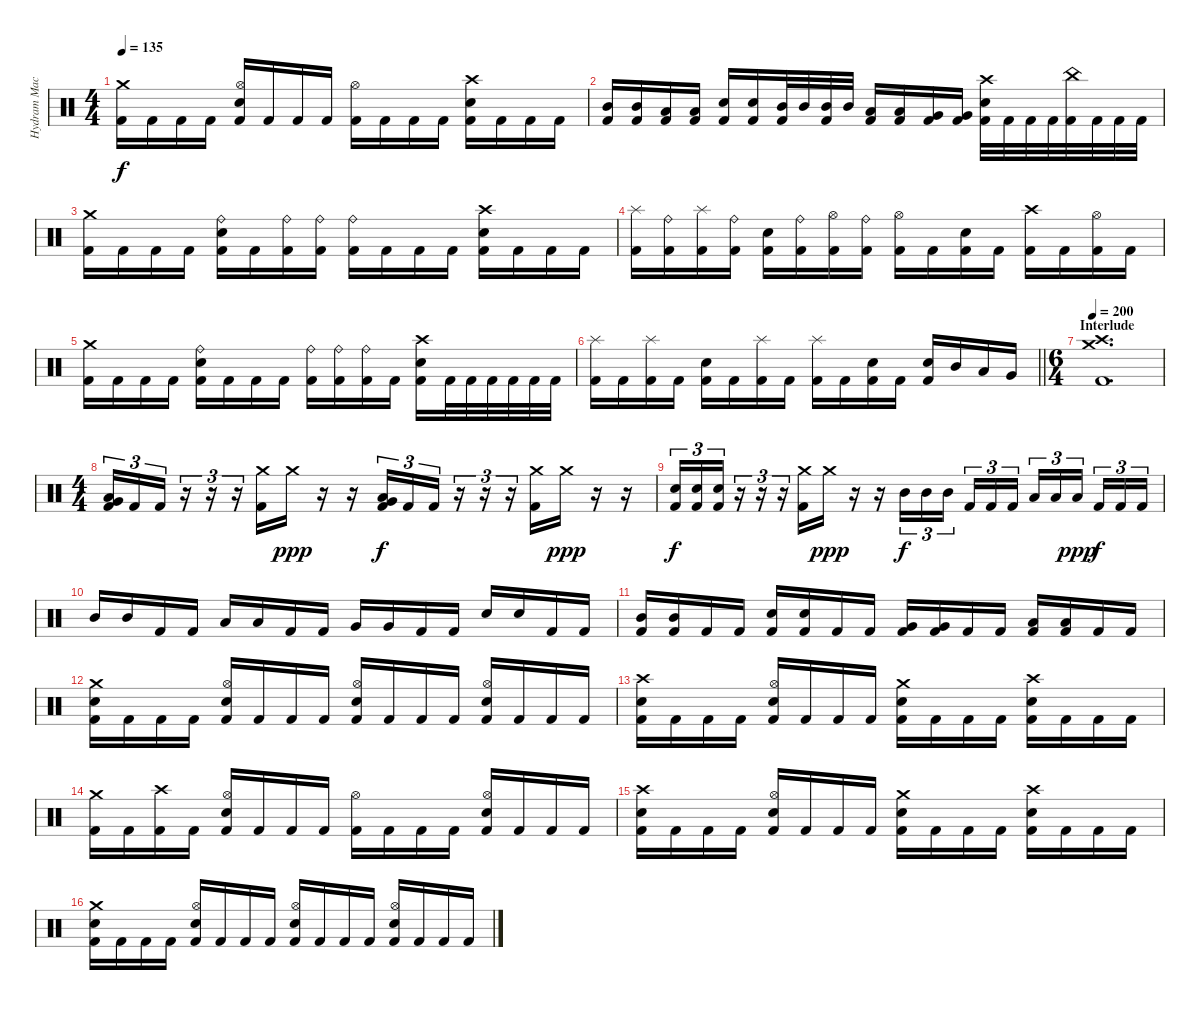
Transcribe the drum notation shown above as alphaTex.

\track ("Hydram Machine" "Hydram Mac") {instrument percussion}
\staff {score}
\articulation defaults
\ts (4 4)
\tempo 135
\clef neutral
\ks c
("Crash medium (hit)" "Kick (hit) 2").16{dy f} "Kick (hit) 2".16 "Kick (hit) 2".16 "Kick (hit) 2".16 ("Hi-Hat (open)" "Electric Snare (hit)" "Kick (hit) 2").16 "Kick (hit) 2".16 "Kick (hit) 2".16 "Kick (hit) 2".16 ("Hi-Hat (open)" "Kick (hit) 2").16 "Kick (hit) 2".16 "Kick (hit) 2".16 "Kick (hit) 2".16 ("Crash high (hit)" "Electric Snare (hit)" "Kick (hit) 2").16 "Kick (hit) 2".16 "Kick (hit) 2".16 "Kick (hit) 2".16 |
("Mid Tom (hit)" "Kick (hit) 2").16 ("Mid Tom (hit)" "Kick (hit) 2").16 ("Low Tom (hit)" "Kick (hit) 2").16 ("Low Tom (hit)" "Kick (hit) 2").16 ("Electric Snare (hit)" "Kick (hit) 2").16 ("Electric Snare (hit)" "Kick (hit) 2").16 ("Mid Tom (hit)" "Kick (hit) 2").32 "Mid Tom (hit)".32 ("Mid Tom (hit)" "Kick (hit) 2").32 "Mid Tom (hit)".32 ("Low Tom (hit)" "Kick (hit) 2").16 ("Low Tom (hit)" "Kick (hit) 2").16 ("Very Low Tom (hit)" "Kick (hit) 2").16 ("Very Low Tom (hit)" "Kick (hit) 2").16 ("Crash high (hit)" "Electric Snare (hit)" "Kick (hit) 2").32 "Kick (hit) 2".32 "Kick (hit) 2".32 "Kick (hit) 2".32 ("China (hit)" "Kick (hit) 2").32 "Kick (hit) 2".32 "Kick (hit) 2".32 "Kick (hit) 2".32 |
("Crash medium (hit)" "Kick (hit) 2").16 "Kick (hit) 2".16 "Kick (hit) 2".16 "Kick (hit) 2".16 ("Ride (bell)" "Electric Snare (hit)" "Kick (hit) 2").16 "Kick (hit) 2".16 ("Ride (bell)" "Kick (hit) 2").16 ("Ride (bell)" "Kick (hit) 2").16 ("Ride (bell)" "Kick (hit) 2").16 "Kick (hit) 2".16 "Kick (hit) 2".16 "Kick (hit) 2".16 ("Crash high (hit)" "Electric Snare (hit)" "Kick (hit) 2").16 "Kick (hit) 2".16 "Kick (hit) 2".16 "Kick (hit) 2".16 |
("Splash (hit)" "Kick (hit) 2").16 ("Ride (bell)" "Kick (hit) 2").16 ("Splash (hit)" "Kick (hit) 2").16 ("Ride (bell)" "Kick (hit) 2").16 ("Electric Snare (hit)" "Kick (hit) 2").16 ("Ride (bell)" "Kick (hit) 2").16 ("Hi-Hat (open)" "Kick (hit) 2").16 ("Ride (bell)" "Kick (hit) 2").16 ("Hi-Hat (open)" "Kick (hit) 2").16 "Kick (hit) 2".16 ("Electric Snare (hit)" "Kick (hit) 2").16 "Kick (hit) 2".16 ("Crash high (hit)" "Kick (hit) 2").16 "Kick (hit) 2".16 ("Hi-Hat (open)" "Kick (hit) 2").16 "Kick (hit) 2".16 |
("Crash medium (hit)" "Kick (hit) 2").16 "Kick (hit) 2".16 "Kick (hit) 2".16 "Kick (hit) 2".16 ("Ride (bell)" "Electric Snare (hit)" "Kick (hit) 2").16 "Kick (hit) 2".16 "Kick (hit) 2".16 "Kick (hit) 2".16 ("Ride (bell)" "Kick (hit) 2").16 ("Ride (bell)" "Kick (hit) 2").16 ("Ride (bell)" "Kick (hit) 2").16 "Kick (hit) 2".16 ("Crash high (hit)" "Electric Snare (hit)" "Kick (hit) 2").16 "Kick (hit) 2".32 "Kick (hit) 2".32 "Kick (hit) 2".32 "Kick (hit) 2".32 "Kick (hit) 2".32 "Kick (hit) 2".32 |
\barLineRight lightlight
("Splash (hit)" "Kick (hit) 2").16 "Kick (hit) 2".16 ("Splash (hit)" "Kick (hit) 2").16 "Kick (hit) 2".16 ("Electric Snare (hit)" "Kick (hit) 2").16 "Kick (hit) 2".16 ("Splash (hit)" "Kick (hit) 2").16 "Kick (hit) 2".16 ("Splash (hit)" "Kick (hit) 2").16 "Kick (hit) 2".16 ("Electric Snare (hit)" "Kick (hit) 2").16 "Kick (hit) 2".16 ("Electric Snare (hit)" "Kick (hit) 2").16 "Mid Tom (hit)".16 "Low Tom (hit)".16 "Very Low Tom (hit)".16 |
\ts (6 4)
\section ("" "Interlude")
\tempo 200
("Crash medium (hit)" "Crash high (hit)" "Kick (hit) 2").1{d} |
\ts (4 4)
("Very Low Tom (hit)" "Low Tom (hit)" "Kick (hit) 2").16{tu (3 2)} "Kick (hit) 2".16{tu (3 2)} "Kick (hit) 2".16{tu (3 2)} r.16{tu (3 2)} r.16{tu (3 2)} r.16{tu (3 2)} ("Crash medium (hit)" "Kick (hit) 2").16 "Crash medium (hit)".16{dy ppp} r.16 r.16 ("Very Low Tom (hit)" "Low Floor Tom (hit)" "Kick (hit) 2").16{tu (3 2) dy f} "Kick (hit) 2".16{tu (3 2)} "Kick (hit) 2".16{tu (3 2)} r.16{tu (3 2)} r.16{tu (3 2)} r.16{tu (3 2)} ("Crash medium (hit)" "Kick (hit) 2").16 "Crash medium (hit)".16{dy ppp} r.16 r.16 |
("Electric Snare (hit)" "Kick (hit) 2").16{tu (3 2) dy f} ("Electric Snare (hit)" "Kick (hit) 2").16{tu (3 2)} ("Electric Snare (hit)" "Kick (hit) 2").16{tu (3 2)} r.16{tu (3 2)} r.16{tu (3 2)} r.16{tu (3 2)} ("Crash medium (hit)" "Kick (hit) 2").16 "Crash medium (hit)".16{dy ppp} r.16 r.16 "Mid Tom (hit)".16{tu (3 2) dy f} "Mid Tom (hit)".16{tu (3 2)} "Mid Tom (hit)".16{tu (3 2) beam splitsecondary} "Kick (hit) 2".16{tu (3 2)} "Kick (hit) 2".16{tu (3 2)} "Kick (hit) 2".16{tu (3 2)} "Low Tom (hit)".16{tu (3 2)} "Low Tom (hit)".16{tu (3 2)} "Low Tom (hit)".16{tu (3 2) dy ppp beam splitsecondary} "Kick (hit) 2".16{tu (3 2) dy f} "Kick (hit) 2".16{tu (3 2)} "Kick (hit) 2".16{tu (3 2)} |
"Mid Tom (hit)".16 "Mid Tom (hit)".16 "Kick (hit) 2".16 "Kick (hit) 2".16 "Low Tom (hit)".16 "Low Tom (hit)".16 "Kick (hit) 2".16 "Kick (hit) 2".16 "Very Low Tom (hit)".16 "Very Low Tom (hit)".16 "Kick (hit) 2".16 "Kick (hit) 2".16 "Electric Snare (hit)".16 "Electric Snare (hit)".16 "Kick (hit) 2".16 "Kick (hit) 2".16 |
("Mid Tom (hit)" "Kick (hit) 2").16 ("Mid Tom (hit)" "Kick (hit) 2").16 "Kick (hit) 2".16 "Kick (hit) 2".16 ("Electric Snare (hit)" "Kick (hit) 2").16 ("Electric Snare (hit)" "Kick (hit) 2").16 "Kick (hit) 2".16 "Kick (hit) 2".16 ("Very Low Tom (hit)" "Kick (hit) 2").16 ("Very Low Tom (hit)" "Kick (hit) 2").16 "Kick (hit) 2".16 "Kick (hit) 2".16 ("Low Tom (hit)" "Kick (hit) 2").16 ("Low Tom (hit)" "Kick (hit) 2").16 "Kick (hit) 2".16 "Kick (hit) 2".16 |
("Crash medium (hit)" "Electric Snare (hit)" "Kick (hit) 2").16 "Kick (hit) 2".16 "Kick (hit) 2".16 "Kick (hit) 2".16 ("Hi-Hat (open)" "Electric Snare (hit)" "Kick (hit) 2").16 "Kick (hit) 2".16 "Kick (hit) 2".16 "Kick (hit) 2".16 ("Hi-Hat (open)" "Electric Snare (hit)" "Kick (hit) 2").16 "Kick (hit) 2".16 "Kick (hit) 2".16 "Kick (hit) 2".16 ("Hi-Hat (open)" "Electric Snare (hit)" "Kick (hit) 2").16 "Kick (hit) 2".16 "Kick (hit) 2".16 "Kick (hit) 2".16 |
("Crash high (hit)" "Electric Snare (hit)" "Kick (hit) 2").16 "Kick (hit) 2".16 "Kick (hit) 2".16 "Kick (hit) 2".16 ("Hi-Hat (open)" "Electric Snare (hit)" "Kick (hit) 2").16 "Kick (hit) 2".16 "Kick (hit) 2".16 "Kick (hit) 2".16 ("Crash medium (hit)" "Electric Snare (hit)" "Kick (hit) 2").16 "Kick (hit) 2".16 "Kick (hit) 2".16 "Kick (hit) 2".16 ("Crash high (hit)" "Electric Snare (hit)" "Kick (hit) 2").16 "Kick (hit) 2".16 "Kick (hit) 2".16 "Kick (hit) 2".16 |
("Crash medium (hit)" "Kick (hit) 2").16 "Kick (hit) 2".16 ("Crash high (hit)" "Kick (hit) 2").16 "Kick (hit) 2".16 ("Hi-Hat (open)" "Electric Snare (hit)" "Kick (hit) 2").16 "Kick (hit) 2".16 "Kick (hit) 2".16 "Kick (hit) 2".16 ("Hi-Hat (open)" "Kick (hit) 2").16 "Kick (hit) 2".16 "Kick (hit) 2".16 "Kick (hit) 2".16 ("Hi-Hat (open)" "Electric Snare (hit)" "Kick (hit) 2").16 "Kick (hit) 2".16 "Kick (hit) 2".16 "Kick (hit) 2".16 |
("Crash high (hit)" "Electric Snare (hit)" "Kick (hit) 2").16 "Kick (hit) 2".16 "Kick (hit) 2".16 "Kick (hit) 2".16 ("Hi-Hat (open)" "Electric Snare (hit)" "Kick (hit) 2").16 "Kick (hit) 2".16 "Kick (hit) 2".16 "Kick (hit) 2".16 ("Crash medium (hit)" "Electric Snare (hit)" "Kick (hit) 2").16 "Kick (hit) 2".16 "Kick (hit) 2".16 "Kick (hit) 2".16 ("Crash high (hit)" "Electric Snare (hit)" "Kick (hit) 2").16 "Kick (hit) 2".16 "Kick (hit) 2".16 "Kick (hit) 2".16 |
("Crash medium (hit)" "Electric Snare (hit)" "Kick (hit) 2").16 "Kick (hit) 2".16 "Kick (hit) 2".16 "Kick (hit) 2".16 ("Hi-Hat (open)" "Electric Snare (hit)" "Kick (hit) 2").16 "Kick (hit) 2".16 "Kick (hit) 2".16 "Kick (hit) 2".16 ("Hi-Hat (open)" "Electric Snare (hit)" "Kick (hit) 2").16 "Kick (hit) 2".16 "Kick (hit) 2".16 "Kick (hit) 2".16 ("Hi-Hat (open)" "Electric Snare (hit)" "Kick (hit) 2").16 "Kick (hit) 2".16 "Kick (hit) 2".16 "Kick (hit) 2".16
